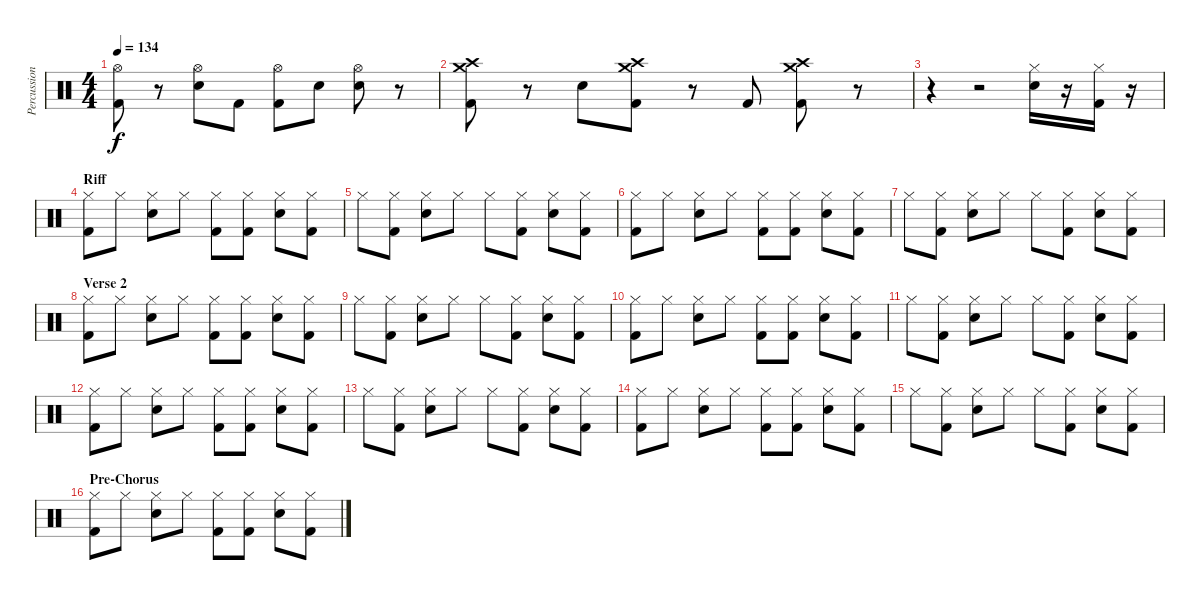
\track ("Percussion" "Percussion") {instrument percussion}
\staff {score}
\articulation defaults
\ts (4 4)
\tempo 134
\clef neutral
\ks c
("Hi-Hat (open)" "Kick (hit) 2").8{dy f} r.8 ("Hi-Hat (open)" "Snare (hit) 2").8 "Kick (hit) 2".8 ("Hi-Hat (open)" "Kick (hit) 2").8 "Snare (hit) 2".8 ("Hi-Hat (open)" "Snare (hit) 2").8 r.8 |
("Crash high (hit)" "Crash medium (hit)" "Kick (hit) 2").8 r.8 "Snare (hit) 2".8 ("Crash high (hit)" "Crash medium (hit)" "Kick (hit) 2").8 r.8 "Kick (hit) 2".8 ("Crash high (hit)" "Crash medium (hit)" "Kick (hit) 2").8 r.8 |
r.4 r.2 ("Hi-Hat (closed)" "Snare (hit) 2").16 r.16 ("Hi-Hat (closed)" "Kick (hit) 2").16 r.16 |
\section ("" "Riff")
("Hi-Hat (closed)" "Kick (hit) 2").8 "Hi-Hat (closed)".8 ("Hi-Hat (closed)" "Snare (hit) 2").8 "Hi-Hat (closed)".8 ("Hi-Hat (closed)" "Kick (hit) 2").8 ("Hi-Hat (closed)" "Kick (hit) 2").8 ("Hi-Hat (closed)" "Snare (hit) 2").8 ("Hi-Hat (closed)" "Kick (hit) 2").8 |
"Hi-Hat (closed)".8 ("Hi-Hat (closed)" "Kick (hit) 2").8 ("Hi-Hat (closed)" "Snare (hit) 2").8 "Hi-Hat (closed)".8 "Hi-Hat (closed)".8 ("Hi-Hat (closed)" "Kick (hit) 2").8 ("Hi-Hat (closed)" "Snare (hit) 2").8 ("Hi-Hat (closed)" "Kick (hit) 2").8 |
("Hi-Hat (closed)" "Kick (hit) 2").8 "Hi-Hat (closed)".8 ("Hi-Hat (closed)" "Snare (hit) 2").8 "Hi-Hat (closed)".8 ("Hi-Hat (closed)" "Kick (hit) 2").8 ("Hi-Hat (closed)" "Kick (hit) 2").8 ("Hi-Hat (closed)" "Snare (hit) 2").8 ("Hi-Hat (closed)" "Kick (hit) 2").8 |
"Hi-Hat (closed)".8 ("Hi-Hat (closed)" "Kick (hit) 2").8 ("Hi-Hat (closed)" "Snare (hit) 2").8 "Hi-Hat (closed)".8 "Hi-Hat (closed)".8 ("Hi-Hat (closed)" "Kick (hit) 2").8 ("Hi-Hat (closed)" "Snare (hit) 2").8 ("Hi-Hat (closed)" "Kick (hit) 2").8 |
\section ("" "Verse 2")
("Hi-Hat (closed)" "Kick (hit) 2").8 "Hi-Hat (closed)".8 ("Hi-Hat (closed)" "Snare (hit) 2").8 "Hi-Hat (closed)".8 ("Hi-Hat (closed)" "Kick (hit) 2").8 ("Hi-Hat (closed)" "Kick (hit) 2").8 ("Hi-Hat (closed)" "Snare (hit) 2").8 ("Hi-Hat (closed)" "Kick (hit) 2").8 |
"Hi-Hat (closed)".8 ("Hi-Hat (closed)" "Kick (hit) 2").8 ("Hi-Hat (closed)" "Snare (hit) 2").8 "Hi-Hat (closed)".8 "Hi-Hat (closed)".8 ("Hi-Hat (closed)" "Kick (hit) 2").8 ("Hi-Hat (closed)" "Snare (hit) 2").8 ("Hi-Hat (closed)" "Kick (hit) 2").8 |
("Hi-Hat (closed)" "Kick (hit) 2").8 "Hi-Hat (closed)".8 ("Hi-Hat (closed)" "Snare (hit) 2").8 "Hi-Hat (closed)".8 ("Hi-Hat (closed)" "Kick (hit) 2").8 ("Hi-Hat (closed)" "Kick (hit) 2").8 ("Hi-Hat (closed)" "Snare (hit) 2").8 ("Hi-Hat (closed)" "Kick (hit) 2").8 |
"Hi-Hat (closed)".8 ("Hi-Hat (closed)" "Kick (hit) 2").8 ("Hi-Hat (closed)" "Snare (hit) 2").8 "Hi-Hat (closed)".8 "Hi-Hat (closed)".8 ("Hi-Hat (closed)" "Kick (hit) 2").8 ("Hi-Hat (closed)" "Snare (hit) 2").8 ("Hi-Hat (closed)" "Kick (hit) 2").8 |
("Hi-Hat (closed)" "Kick (hit) 2").8 "Hi-Hat (closed)".8 ("Hi-Hat (closed)" "Snare (hit) 2").8 "Hi-Hat (closed)".8 ("Hi-Hat (closed)" "Kick (hit) 2").8 ("Hi-Hat (closed)" "Kick (hit) 2").8 ("Hi-Hat (closed)" "Snare (hit) 2").8 ("Hi-Hat (closed)" "Kick (hit) 2").8 |
"Hi-Hat (closed)".8 ("Hi-Hat (closed)" "Kick (hit) 2").8 ("Hi-Hat (closed)" "Snare (hit) 2").8 "Hi-Hat (closed)".8 "Hi-Hat (closed)".8 ("Hi-Hat (closed)" "Kick (hit) 2").8 ("Hi-Hat (closed)" "Snare (hit) 2").8 ("Hi-Hat (closed)" "Kick (hit) 2").8 |
("Hi-Hat (closed)" "Kick (hit) 2").8 "Hi-Hat (closed)".8 ("Hi-Hat (closed)" "Snare (hit) 2").8 "Hi-Hat (closed)".8 ("Hi-Hat (closed)" "Kick (hit) 2").8 ("Hi-Hat (closed)" "Kick (hit) 2").8 ("Hi-Hat (closed)" "Snare (hit) 2").8 ("Hi-Hat (closed)" "Kick (hit) 2").8 |
"Hi-Hat (closed)".8 ("Hi-Hat (closed)" "Kick (hit) 2").8 ("Hi-Hat (closed)" "Snare (hit) 2").8 "Hi-Hat (closed)".8 "Hi-Hat (closed)".8 ("Hi-Hat (closed)" "Kick (hit) 2").8 ("Hi-Hat (closed)" "Snare (hit) 2").8 ("Hi-Hat (closed)" "Kick (hit) 2").8 |
\section ("" "Pre-Chorus")
("Hi-Hat (closed)" "Kick (hit) 2").8 "Hi-Hat (closed)".8 ("Hi-Hat (closed)" "Snare (hit) 2").8 "Hi-Hat (closed)".8 ("Hi-Hat (closed)" "Kick (hit) 2").8 ("Hi-Hat (closed)" "Kick (hit) 2").8 ("Hi-Hat (closed)" "Snare (hit) 2").8 ("Hi-Hat (closed)" "Kick (hit) 2").8
